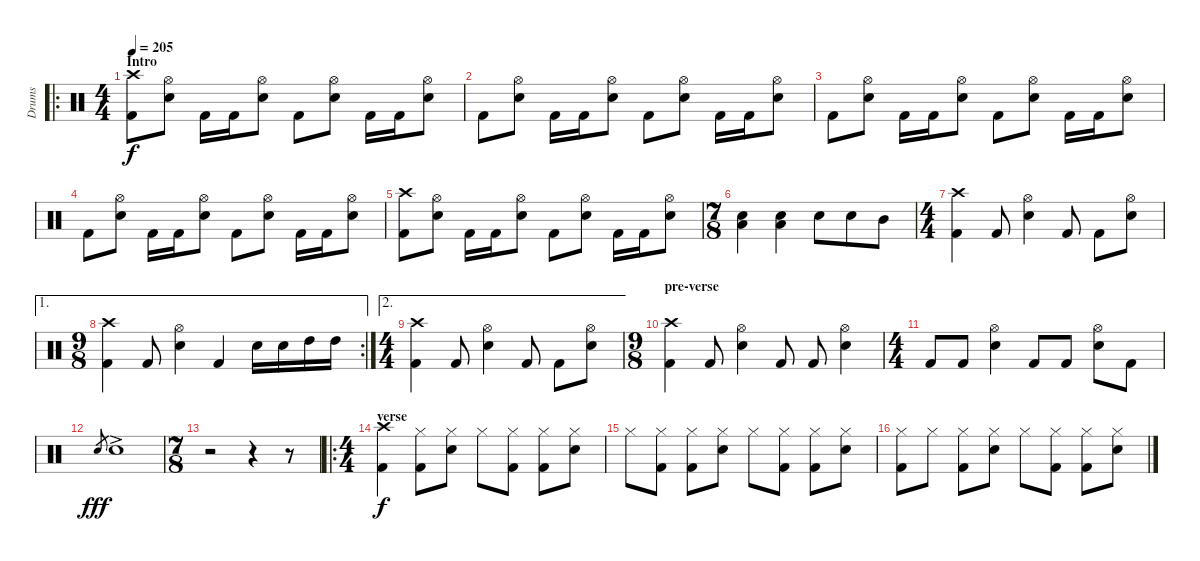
\track ("Drums" "Drums") {instrument percussion}
\staff {score}
\articulation defaults
\ro
\ts (4 4)
\section ("" "Intro")
\tempo 205
\clef neutral
\ks c
("Crash high (hit)" "Kick (hit) 2").8{dy f} ("Hi-Hat (open)" "Electric Snare (hit)").8 "Kick (hit) 2".16 "Kick (hit) 2".16 ("Hi-Hat (open)" "Electric Snare (hit)").8 "Kick (hit) 2".8 ("Hi-Hat (open)" "Electric Snare (hit)").8 "Kick (hit) 2".16 "Kick (hit) 2".16 ("Hi-Hat (open)" "Electric Snare (hit)").8 |
"Kick (hit) 2".8 ("Hi-Hat (open)" "Electric Snare (hit)").8 "Kick (hit) 2".16 "Kick (hit) 2".16 ("Hi-Hat (open)" "Electric Snare (hit)").8 "Kick (hit) 2".8 ("Hi-Hat (open)" "Electric Snare (hit)").8 "Kick (hit) 2".16 "Kick (hit) 2".16 ("Hi-Hat (open)" "Electric Snare (hit)").8 |
"Kick (hit) 2".8 ("Hi-Hat (open)" "Electric Snare (hit)").8 "Kick (hit) 2".16 "Kick (hit) 2".16 ("Hi-Hat (open)" "Electric Snare (hit)").8 "Kick (hit) 2".8 ("Hi-Hat (open)" "Electric Snare (hit)").8 "Kick (hit) 2".16 "Kick (hit) 2".16 ("Hi-Hat (open)" "Electric Snare (hit)").8 |
"Kick (hit) 2".8 ("Hi-Hat (open)" "Electric Snare (hit)").8 "Kick (hit) 2".16 "Kick (hit) 2".16 ("Hi-Hat (open)" "Electric Snare (hit)").8 "Kick (hit) 2".8 ("Hi-Hat (open)" "Electric Snare (hit)").8 "Kick (hit) 2".16 "Kick (hit) 2".16 ("Hi-Hat (open)" "Electric Snare (hit)").8 |
("Crash high (hit)" "Kick (hit) 2").8 ("Hi-Hat (open)" "Electric Snare (hit)").8 "Kick (hit) 2".16 "Kick (hit) 2".16 ("Hi-Hat (open)" "Electric Snare (hit)").8 "Kick (hit) 2".8 ("Hi-Hat (open)" "Electric Snare (hit)").8 "Kick (hit) 2".16 "Kick (hit) 2".16 ("Hi-Hat (open)" "Electric Snare (hit)").8 |
\ts (7 8)
("Low Floor Tom (hit)" "Electric Snare (hit)").4 ("Low Floor Tom (hit)" "Electric Snare (hit)").4 "Electric Snare (hit)".8 "Electric Snare (hit)".8 "Mid Tom (hit)".8 |
\ts (4 4)
("Crash high (hit)" "Kick (hit) 2").4 "Kick (hit) 2".8 ("Hi-Hat (open)" "Electric Snare (hit)").4 "Kick (hit) 2".8 "Kick (hit) 2".8 ("Hi-Hat (open)" "Electric Snare (hit)").8 |
\ae 1
\rc 2
\ts (9 8)
("Crash high (hit)" "Kick (hit) 2").4 "Kick (hit) 2".8 ("Hi-Hat (open)" "Electric Snare (hit)").4 "Kick (hit) 2".4 "Electric Snare (hit)".16 "Electric Snare (hit)".16 "High Tom (hit)".16 "High Tom (hit)".16 |
\ae 2
\ts (4 4)
("Crash high (hit)" "Kick (hit) 2").4 "Kick (hit) 2".8 ("Hi-Hat (open)" "Electric Snare (hit)").4 "Kick (hit) 2".8 "Kick (hit) 2".8 ("Hi-Hat (open)" "Electric Snare (hit)").8 |
\ts (9 8)
\section ("" "pre-verse")
("Crash high (hit)" "Kick (hit) 2").4 "Kick (hit) 2".8 ("Hi-Hat (open)" "Electric Snare (hit)").4 "Kick (hit) 2".8 "Kick (hit) 2".8 ("Hi-Hat (open)" "Electric Snare (hit)").4 |
\ts (4 4)
"Kick (hit) 2".8 "Kick (hit) 2".8 ("Hi-Hat (open)" "Electric Snare (hit)").4 "Kick (hit) 2".8 "Kick (hit) 2".8 ("Hi-Hat (open)" "Electric Snare (hit)").8 "Kick (hit) 2".8 |
"Electric Snare (hit)".8{gr dy fff} "Electric Snare (hit)"{ac}.1 |
\ts (7 8)
r.2 r.4 r.8 |
\ro
\ts (4 4)
\section ("" "verse")
("Crash high (hit)" "Kick (hit) 2").4{dy f} ("Hi-Hat (closed)" "Kick (hit) 2").8 ("Hi-Hat (closed)" "Electric Snare (hit)").8 "Hi-Hat (closed)".8 ("Hi-Hat (closed)" "Kick (hit) 2").8 ("Hi-Hat (closed)" "Kick (hit) 2").8 ("Hi-Hat (closed)" "Electric Snare (hit)").8 |
"Hi-Hat (closed)".8 ("Hi-Hat (closed)" "Kick (hit) 2").8 ("Hi-Hat (closed)" "Kick (hit) 2").8 ("Hi-Hat (closed)" "Electric Snare (hit)").8 "Hi-Hat (closed)".8 ("Hi-Hat (closed)" "Kick (hit) 2").8 ("Hi-Hat (closed)" "Kick (hit) 2").8 ("Hi-Hat (closed)" "Electric Snare (hit)").8 |
("Hi-Hat (closed)" "Kick (hit) 2").8 "Hi-Hat (closed)".8 ("Hi-Hat (closed)" "Kick (hit) 2").8 ("Hi-Hat (closed)" "Electric Snare (hit)").8 "Hi-Hat (closed)".8 ("Hi-Hat (closed)" "Kick (hit) 2").8 ("Hi-Hat (closed)" "Kick (hit) 2").8 ("Hi-Hat (closed)" "Electric Snare (hit)").8
